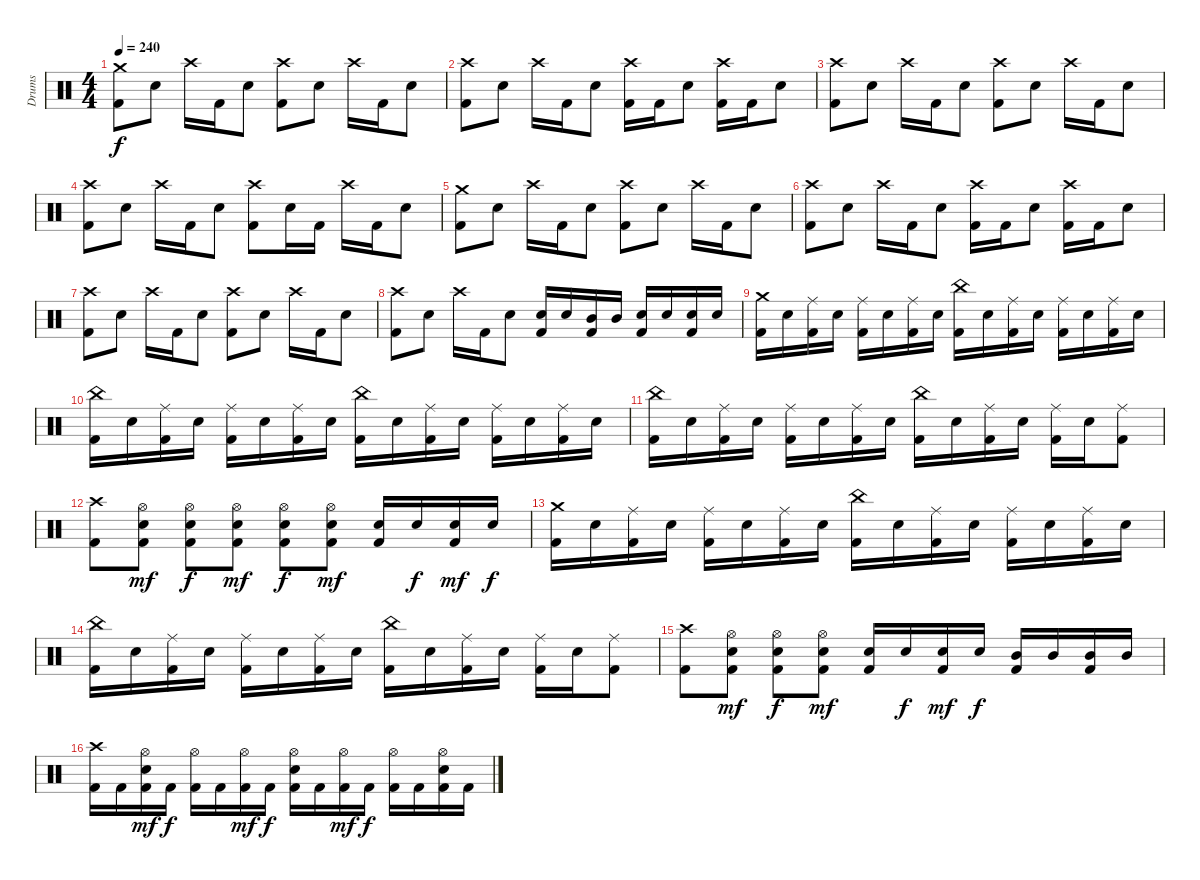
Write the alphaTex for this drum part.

\track ("Drums" "Drums") {instrument percussion}
\staff {score}
\articulation defaults
\ts (4 4)
\tempo 240
\clef neutral
\ks c
("Crash medium (hit)" "Kick (hit) 2").8{dy f} "Electric Snare (hit)".8 "Crash high (hit)".16 "Kick (hit) 2".16 "Electric Snare (hit)".8 ("Crash high (hit)" "Kick (hit) 2").8 "Electric Snare (hit)".8 "Crash high (hit)".16 "Kick (hit) 2".16 "Electric Snare (hit)".8 |
("Crash high (hit)" "Kick (hit) 2").8 "Electric Snare (hit)".8 "Crash high (hit)".16 "Kick (hit) 2".16 "Electric Snare (hit)".8 ("Crash high (hit)" "Kick (hit) 2").16 "Kick (hit) 2".16 "Electric Snare (hit)".8 ("Crash high (hit)" "Kick (hit) 2").16 "Kick (hit) 2".16 "Electric Snare (hit)".8 |
("Crash high (hit)" "Kick (hit) 2").8 "Electric Snare (hit)".8 "Crash high (hit)".16 "Kick (hit) 2".16 "Electric Snare (hit)".8 ("Crash high (hit)" "Kick (hit) 2").8 "Electric Snare (hit)".8 "Crash high (hit)".16 "Kick (hit) 2".16 "Electric Snare (hit)".8 |
("Crash high (hit)" "Kick (hit) 2").8 "Electric Snare (hit)".8 "Crash high (hit)".16 "Kick (hit) 2".16 "Electric Snare (hit)".8 ("Crash high (hit)" "Kick (hit) 2").8 "Electric Snare (hit)".16 "Kick (hit) 2".16 "Crash high (hit)".16 "Kick (hit) 2".16 "Electric Snare (hit)".8 |
("Crash medium (hit)" "Kick (hit) 2").8 "Electric Snare (hit)".8 "Crash high (hit)".16 "Kick (hit) 2".16 "Electric Snare (hit)".8 ("Crash high (hit)" "Kick (hit) 2").8 "Electric Snare (hit)".8 "Crash high (hit)".16 "Kick (hit) 2".16 "Electric Snare (hit)".8 |
("Crash high (hit)" "Kick (hit) 2").8 "Electric Snare (hit)".8 "Crash high (hit)".16 "Kick (hit) 2".16 "Electric Snare (hit)".8 ("Crash high (hit)" "Kick (hit) 2").16 "Kick (hit) 2".16 "Electric Snare (hit)".8 ("Crash high (hit)" "Kick (hit) 2").16 "Kick (hit) 2".16 "Electric Snare (hit)".8 |
("Crash high (hit)" "Kick (hit) 2").8 "Electric Snare (hit)".8 "Crash high (hit)".16 "Kick (hit) 2".16 "Electric Snare (hit)".8 ("Crash high (hit)" "Kick (hit) 2").8 "Electric Snare (hit)".8 "Crash high (hit)".16 "Kick (hit) 2".16 "Electric Snare (hit)".8 |
("Crash high (hit)" "Kick (hit) 2").8 "Electric Snare (hit)".8 "Crash high (hit)".16 "Kick (hit) 2".16 "Electric Snare (hit)".8 ("Electric Snare (hit)" "Kick (hit) 2").16 "Electric Snare (hit)".16 ("Mid Tom (hit)" "Kick (hit) 2").16 "Mid Tom (hit)".16 ("Electric Snare (hit)" "Kick (hit) 2").16 "Electric Snare (hit)".16 ("Electric Snare (hit)" "Kick (hit) 2").16 "Electric Snare (hit)".16 |
("Crash medium (hit)" "Kick (hit) 2").16 "Electric Snare (hit)".16 ("Ride (middle)" "Kick (hit) 2").16 "Electric Snare (hit)".16 ("Ride (middle)" "Kick (hit) 2").16 "Electric Snare (hit)".16 ("Ride (middle)" "Kick (hit) 2").16 "Electric Snare (hit)".16 ("China (hit)" "Kick (hit) 2").16 "Electric Snare (hit)".16 ("Ride (middle)" "Kick (hit) 2").16 "Electric Snare (hit)".16 ("Ride (middle)" "Kick (hit) 2").16 "Electric Snare (hit)".16 ("Ride (middle)" "Kick (hit) 2").16 "Electric Snare (hit)".16 |
("China (hit)" "Kick (hit) 2").16 "Electric Snare (hit)".16 ("Ride (middle)" "Kick (hit) 2").16 "Electric Snare (hit)".16 ("Ride (middle)" "Kick (hit) 2").16 "Electric Snare (hit)".16 ("Ride (middle)" "Kick (hit) 2").16 "Electric Snare (hit)".16 ("China (hit)" "Kick (hit) 2").16 "Electric Snare (hit)".16 ("Ride (middle)" "Kick (hit) 2").16 "Electric Snare (hit)".16 ("Ride (middle)" "Kick (hit) 2").16 "Electric Snare (hit)".16 ("Ride (middle)" "Kick (hit) 2").16 "Electric Snare (hit)".16 |
("China (hit)" "Kick (hit) 2").16 "Electric Snare (hit)".16 ("Ride (middle)" "Kick (hit) 2").16 "Electric Snare (hit)".16 ("Ride (middle)" "Kick (hit) 2").16 "Electric Snare (hit)".16 ("Ride (middle)" "Kick (hit) 2").16 "Electric Snare (hit)".16 ("China (hit)" "Kick (hit) 2").16 "Electric Snare (hit)".16 ("Ride (middle)" "Kick (hit) 2").16 "Electric Snare (hit)".16 ("Ride (middle)" "Kick (hit) 2").16 "Electric Snare (hit)".16 ("Ride (middle)" "Kick (hit) 2").8 |
("Crash high (hit)" "Kick (hit) 2").8 ("Hi-Hat (open)" "Electric Snare (hit)" "Kick (hit) 2").8{dy mf} ("Hi-Hat (open)" "Electric Snare (hit)" "Kick (hit) 2").8{dy f} ("Hi-Hat (open)" "Electric Snare (hit)" "Kick (hit) 2").8{dy mf} ("Hi-Hat (open)" "Electric Snare (hit)" "Kick (hit) 2").8{dy f} ("Hi-Hat (open)" "Electric Snare (hit)" "Kick (hit) 2").8{dy mf} ("Electric Snare (hit)" "Kick (hit) 2").16 "Electric Snare (hit)".16{dy f} ("Electric Snare (hit)" "Kick (hit) 2").16{dy mf} "Electric Snare (hit)".16{dy f} |
("Crash medium (hit)" "Kick (hit) 2").16 "Electric Snare (hit)".16 ("Ride (middle)" "Kick (hit) 2").16 "Electric Snare (hit)".16 ("Ride (middle)" "Kick (hit) 2").16 "Electric Snare (hit)".16 ("Ride (middle)" "Kick (hit) 2").16 "Electric Snare (hit)".16 ("China (hit)" "Kick (hit) 2").16 "Electric Snare (hit)".16 ("Ride (middle)" "Kick (hit) 2").16 "Electric Snare (hit)".16 ("Ride (middle)" "Kick (hit) 2").16 "Electric Snare (hit)".16 ("Ride (middle)" "Kick (hit) 2").16 "Electric Snare (hit)".16 |
("China (hit)" "Kick (hit) 2").16 "Electric Snare (hit)".16 ("Ride (middle)" "Kick (hit) 2").16 "Electric Snare (hit)".16 ("Ride (middle)" "Kick (hit) 2").16 "Electric Snare (hit)".16 ("Ride (middle)" "Kick (hit) 2").16 "Electric Snare (hit)".16 ("China (hit)" "Kick (hit) 2").16 "Electric Snare (hit)".16 ("Ride (middle)" "Kick (hit) 2").16 "Electric Snare (hit)".16 ("Ride (middle)" "Kick (hit) 2").16 "Electric Snare (hit)".16 ("Ride (middle)" "Kick (hit) 2").8 |
("Crash high (hit)" "Kick (hit) 2").8 ("Hi-Hat (open)" "Electric Snare (hit)" "Kick (hit) 2").8{dy mf} ("Hi-Hat (open)" "Electric Snare (hit)" "Kick (hit) 2").8{dy f} ("Hi-Hat (open)" "Electric Snare (hit)" "Kick (hit) 2").8{dy mf} ("Electric Snare (hit)" "Kick (hit) 2").16 "Electric Snare (hit)".16{dy f} ("Electric Snare (hit)" "Kick (hit) 2").16{dy mf} "Electric Snare (hit)".16{dy f} ("Mid Tom (hit)" "Kick (hit) 2").16 "Mid Tom (hit)".16 ("Mid Tom (hit)" "Kick (hit) 2").16 "Mid Tom (hit)".16 |
("Crash high (hit)" "Kick (hit) 2").16 "Kick (hit) 2".16 ("Hi-Hat (open)" "Electric Snare (hit)" "Kick (hit) 2").16{dy mf} "Kick (hit) 2".16{dy f} ("Hi-Hat (open)" "Kick (hit) 2").16 "Kick (hit) 2".16 ("Hi-Hat (open)" "Kick (hit) 2").16{dy mf} "Kick (hit) 2".16{dy f} ("Hi-Hat (open)" "Electric Snare (hit)" "Kick (hit) 2").16 "Kick (hit) 2".16 ("Hi-Hat (open)" "Kick (hit) 2").16{dy mf} "Kick (hit) 2".16{dy f} ("Hi-Hat (open)" "Kick (hit) 2").16 "Kick (hit) 2".16 ("Hi-Hat (open)" "Electric Snare (hit)" "Kick (hit) 2").16 "Kick (hit) 2".16
